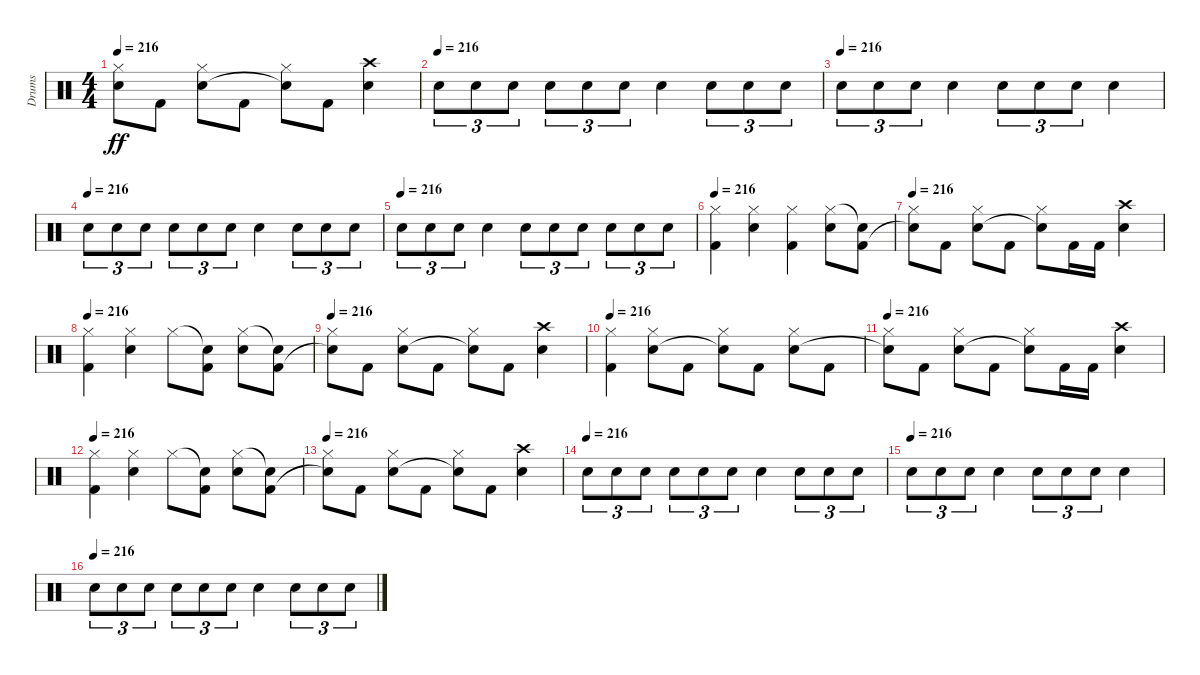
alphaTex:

\track ("Drums" "Drums") {instrument percussion}
\staff {score}
\articulation defaults
\ts (4 4)
\tempo 216
\clef neutral
\ks c
("Hi-Hat (closed)" "Snare (hit)"{t}).8{dy ff} "Kick (hit) 2".8 ("Hi-Hat (closed)" "Snare (hit) 2").8 "Kick (hit) 2".8 ("Hi-Hat (closed)" "Snare (hit)"{t}).8 "Kick (hit) 2".8 ("Crash high (hit)" "Snare (hit) 2").4 |
\tempo (216)
"Snare (hit) 2".8{tu (3 2)} "Snare (hit) 2".8{tu (3 2)} "Snare (hit) 2".8{tu (3 2)} "Snare (hit) 2".8{tu (3 2)} "Snare (hit) 2".8{tu (3 2)} "Snare (hit) 2".8{tu (3 2)} "Snare (hit) 2".4 "Snare (hit) 2".8{tu (3 2)} "Snare (hit) 2".8{tu (3 2)} "Snare (hit) 2".8{tu (3 2)} |
\tempo (216)
"Snare (hit) 2".8{tu (3 2)} "Snare (hit) 2".8{tu (3 2)} "Snare (hit) 2".8{tu (3 2)} "Snare (hit) 2".4 "Snare (hit) 2".8{tu (3 2)} "Snare (hit) 2".8{tu (3 2)} "Snare (hit) 2".8{tu (3 2)} "Snare (hit) 2".4 |
\tempo (216)
"Snare (hit) 2".8{tu (3 2)} "Snare (hit) 2".8{tu (3 2)} "Snare (hit) 2".8{tu (3 2)} "Snare (hit) 2".8{tu (3 2)} "Snare (hit) 2".8{tu (3 2)} "Snare (hit) 2".8{tu (3 2)} "Snare (hit) 2".4 "Snare (hit) 2".8{tu (3 2)} "Snare (hit) 2".8{tu (3 2)} "Snare (hit) 2".8{tu (3 2)} |
\tempo (216)
"Snare (hit) 2".8{tu (3 2)} "Snare (hit) 2".8{tu (3 2)} "Snare (hit) 2".8{tu (3 2)} "Snare (hit) 2".4 "Snare (hit) 2".8{tu (3 2)} "Snare (hit) 2".8{tu (3 2)} "Snare (hit) 2".8{tu (3 2)} "Snare (hit) 2".8{tu (3 2)} "Snare (hit) 2".8{tu (3 2)} "Snare (hit) 2".8{tu (3 2)} |
\tempo 216
("Hi-Hat (closed)" "Kick (hit) 2").4{volume 15} ("Hi-Hat (closed)" "Snare (hit) 2").4 ("Hi-Hat (closed)" "Kick (hit) 2").4 ("Hi-Hat (closed)" "Snare (hit) 2").8 ("Snare (hit)"{t} "Kick (hit) 2").8 |
\tempo 216
("Hi-Hat (closed)" "Snare (hit)"{t}).8 "Kick (hit) 2".8 ("Hi-Hat (closed)" "Snare (hit) 2").8 "Kick (hit) 2".8 ("Hi-Hat (closed)" "Snare (hit)"{t}).8 "Kick (hit) 2".16 "Kick (hit) 2".16 ("Crash high (hit)" "Snare (hit) 2").4 |
\tempo 216
("Hi-Hat (closed)" "Kick (hit) 2").4 ("Hi-Hat (closed)" "Snare (hit) 2").4 "Hi-Hat (closed)".8 ("Snare (hit)"{t} "Kick (hit) 2").8 ("Hi-Hat (closed)" "Snare (hit) 2").8 ("Snare (hit)"{t} "Kick (hit) 2").8 |
\tempo 216
("Hi-Hat (closed)" "Snare (hit)"{t}).8 "Kick (hit) 2".8 ("Hi-Hat (closed)" "Snare (hit) 2").8 "Kick (hit) 2".8 ("Hi-Hat (closed)" "Snare (hit)"{t}).8 "Kick (hit) 2".8 ("Crash high (hit)" "Snare (hit) 2").4 |
\tempo 216
("Hi-Hat (closed)" "Kick (hit) 2").4 ("Hi-Hat (closed)" "Snare (hit) 2").8 "Kick (hit) 2".8 ("Hi-Hat (closed)" "Snare (hit)"{t}).8 "Kick (hit) 2".8 ("Hi-Hat (closed)" "Snare (hit) 2").8 "Kick (hit) 2".8 |
\tempo 216
("Hi-Hat (closed)" "Snare (hit)"{t}).8 "Kick (hit) 2".8 ("Hi-Hat (closed)" "Snare (hit) 2").8 "Kick (hit) 2".8 ("Hi-Hat (closed)" "Snare (hit)"{t}).8 "Kick (hit) 2".16 "Kick (hit) 2".16 ("Crash high (hit)" "Snare (hit) 2").4 |
\tempo 216
("Hi-Hat (closed)" "Kick (hit) 2").4 ("Hi-Hat (closed)" "Snare (hit) 2").4 "Hi-Hat (closed)".8 ("Snare (hit)"{t} "Kick (hit) 2").8 ("Hi-Hat (closed)" "Snare (hit) 2").8 ("Snare (hit)"{t} "Kick (hit) 2").8 |
\tempo 216
("Hi-Hat (closed)" "Snare (hit)"{t}).8 "Kick (hit) 2".8 ("Hi-Hat (closed)" "Snare (hit) 2").8 "Kick (hit) 2".8 ("Hi-Hat (closed)" "Snare (hit)"{t}).8 "Kick (hit) 2".8 ("Crash high (hit)" "Snare (hit) 2").4 |
\tempo (216)
"Snare (hit) 2".8{tu (3 2)} "Snare (hit) 2".8{tu (3 2)} "Snare (hit) 2".8{tu (3 2)} "Snare (hit) 2".8{tu (3 2)} "Snare (hit) 2".8{tu (3 2)} "Snare (hit) 2".8{tu (3 2)} "Snare (hit) 2".4 "Snare (hit) 2".8{tu (3 2)} "Snare (hit) 2".8{tu (3 2)} "Snare (hit) 2".8{tu (3 2)} |
\tempo (216)
"Snare (hit) 2".8{tu (3 2)} "Snare (hit) 2".8{tu (3 2)} "Snare (hit) 2".8{tu (3 2)} "Snare (hit) 2".4 "Snare (hit) 2".8{tu (3 2)} "Snare (hit) 2".8{tu (3 2)} "Snare (hit) 2".8{tu (3 2)} "Snare (hit) 2".4 |
\tempo (216)
"Snare (hit) 2".8{tu (3 2)} "Snare (hit) 2".8{tu (3 2)} "Snare (hit) 2".8{tu (3 2)} "Snare (hit) 2".8{tu (3 2)} "Snare (hit) 2".8{tu (3 2)} "Snare (hit) 2".8{tu (3 2)} "Snare (hit) 2".4 "Snare (hit) 2".8{tu (3 2)} "Snare (hit) 2".8{tu (3 2)} "Snare (hit) 2".8{tu (3 2)}
